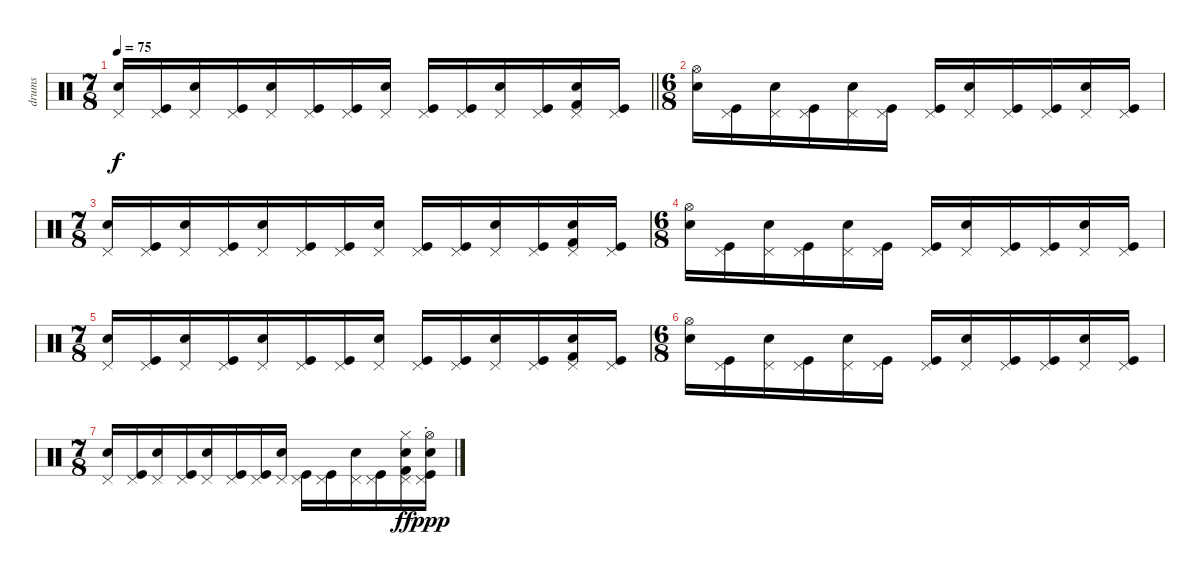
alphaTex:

\track ("drums" "drums") {instrument percussion}
\staff {score}
\articulation defaults
\ts (7 8)
\tempo 75
\clef neutral
\barLineRight lightlight
\ks c
("Pedal Hi-Hat (hit)" "Electric Snare (hit)").16{dy f} ("Pedal Hi-Hat (hit)" "Kick (hit)").16 ("Pedal Hi-Hat (hit)" "Electric Snare (hit)").16 ("Pedal Hi-Hat (hit)" "Kick (hit)").16 ("Pedal Hi-Hat (hit)" "Electric Snare (hit)").16 ("Pedal Hi-Hat (hit)" "Kick (hit)").16 ("Pedal Hi-Hat (hit)" "Kick (hit)").16 ("Pedal Hi-Hat (hit)" "Electric Snare (hit)").16 ("Pedal Hi-Hat (hit)" "Kick (hit)").16 ("Pedal Hi-Hat (hit)" "Kick (hit)").16 ("Pedal Hi-Hat (hit)" "Electric Snare (hit)").16 ("Pedal Hi-Hat (hit)" "Kick (hit)").16 ("Pedal Hi-Hat (hit)" "Electric Snare (hit)" "Kick (hit) 2").16 ("Pedal Hi-Hat (hit)" "Kick (hit)").16 |
\ts (6 8)
("Hi-Hat (open)" "Electric Snare (hit)").16 ("Pedal Hi-Hat (hit)" "Kick (hit)").16 ("Pedal Hi-Hat (hit)" "Electric Snare (hit)").16 ("Pedal Hi-Hat (hit)" "Kick (hit)").16 ("Pedal Hi-Hat (hit)" "Electric Snare (hit)").16 ("Pedal Hi-Hat (hit)" "Kick (hit)").16 ("Pedal Hi-Hat (hit)" "Kick (hit)").16 ("Pedal Hi-Hat (hit)" "Electric Snare (hit)").16 ("Pedal Hi-Hat (hit)" "Kick (hit)").16 ("Pedal Hi-Hat (hit)" "Kick (hit)").16 ("Pedal Hi-Hat (hit)" "Electric Snare (hit)").16 ("Pedal Hi-Hat (hit)" "Kick (hit)").16 |
\ts (7 8)
("Pedal Hi-Hat (hit)" "Electric Snare (hit)").16 ("Pedal Hi-Hat (hit)" "Kick (hit)").16 ("Pedal Hi-Hat (hit)" "Electric Snare (hit)").16 ("Pedal Hi-Hat (hit)" "Kick (hit)").16 ("Pedal Hi-Hat (hit)" "Electric Snare (hit)").16 ("Pedal Hi-Hat (hit)" "Kick (hit)").16 ("Pedal Hi-Hat (hit)" "Kick (hit)").16 ("Pedal Hi-Hat (hit)" "Electric Snare (hit)").16 ("Pedal Hi-Hat (hit)" "Kick (hit)").16 ("Pedal Hi-Hat (hit)" "Kick (hit)").16 ("Pedal Hi-Hat (hit)" "Electric Snare (hit)").16 ("Pedal Hi-Hat (hit)" "Kick (hit)").16 ("Pedal Hi-Hat (hit)" "Electric Snare (hit)" "Kick (hit) 2").16 ("Pedal Hi-Hat (hit)" "Kick (hit)").16 |
\ts (6 8)
("Hi-Hat (open)" "Electric Snare (hit)").16 ("Pedal Hi-Hat (hit)" "Kick (hit)").16 ("Pedal Hi-Hat (hit)" "Electric Snare (hit)").16 ("Pedal Hi-Hat (hit)" "Kick (hit)").16 ("Pedal Hi-Hat (hit)" "Electric Snare (hit)").16 ("Pedal Hi-Hat (hit)" "Kick (hit)").16 ("Pedal Hi-Hat (hit)" "Kick (hit)").16 ("Pedal Hi-Hat (hit)" "Electric Snare (hit)").16 ("Pedal Hi-Hat (hit)" "Kick (hit)").16 ("Pedal Hi-Hat (hit)" "Kick (hit)").16 ("Pedal Hi-Hat (hit)" "Electric Snare (hit)").16 ("Pedal Hi-Hat (hit)" "Kick (hit)").16 |
\ts (7 8)
("Pedal Hi-Hat (hit)" "Electric Snare (hit)").16 ("Pedal Hi-Hat (hit)" "Kick (hit)").16 ("Pedal Hi-Hat (hit)" "Electric Snare (hit)").16 ("Pedal Hi-Hat (hit)" "Kick (hit)").16 ("Pedal Hi-Hat (hit)" "Electric Snare (hit)").16 ("Pedal Hi-Hat (hit)" "Kick (hit)").16 ("Pedal Hi-Hat (hit)" "Kick (hit)").16 ("Pedal Hi-Hat (hit)" "Electric Snare (hit)").16 ("Pedal Hi-Hat (hit)" "Kick (hit)").16 ("Pedal Hi-Hat (hit)" "Kick (hit)").16 ("Pedal Hi-Hat (hit)" "Electric Snare (hit)").16 ("Pedal Hi-Hat (hit)" "Kick (hit)").16 ("Pedal Hi-Hat (hit)" "Electric Snare (hit)" "Kick (hit) 2").16 ("Pedal Hi-Hat (hit)" "Kick (hit)").16 |
\ts (6 8)
("Hi-Hat (open)" "Electric Snare (hit)").16 ("Pedal Hi-Hat (hit)" "Kick (hit)").16 ("Pedal Hi-Hat (hit)" "Electric Snare (hit)").16 ("Pedal Hi-Hat (hit)" "Kick (hit)").16 ("Pedal Hi-Hat (hit)" "Electric Snare (hit)").16 ("Pedal Hi-Hat (hit)" "Kick (hit)").16 ("Pedal Hi-Hat (hit)" "Kick (hit)").16 ("Pedal Hi-Hat (hit)" "Electric Snare (hit)").16 ("Pedal Hi-Hat (hit)" "Kick (hit)").16 ("Pedal Hi-Hat (hit)" "Kick (hit)").16 ("Pedal Hi-Hat (hit)" "Electric Snare (hit)").16 ("Pedal Hi-Hat (hit)" "Kick (hit)").16 |
\ts (7 8)
("Pedal Hi-Hat (hit)" "Electric Snare (hit)").16 ("Pedal Hi-Hat (hit)" "Kick (hit)").16 ("Pedal Hi-Hat (hit)" "Electric Snare (hit)").16 ("Pedal Hi-Hat (hit)" "Kick (hit)").16 ("Pedal Hi-Hat (hit)" "Electric Snare (hit)").16 ("Pedal Hi-Hat (hit)" "Kick (hit)").16 ("Pedal Hi-Hat (hit)" "Kick (hit)").16 ("Pedal Hi-Hat (hit)" "Electric Snare (hit)").16 ("Pedal Hi-Hat (hit)" "Kick (hit)").16 ("Pedal Hi-Hat (hit)" "Kick (hit)").16 ("Pedal Hi-Hat (hit)" "Electric Snare (hit)").16 ("Pedal Hi-Hat (hit)" "Kick (hit)").16 ("Pedal Hi-Hat (hit)" "Hi-Hat (closed)" "Electric Snare (hit)" "Kick (hit) 2").16{dy ff} ("Pedal Hi-Hat (hit)" "Hi-Hat (open)"{st} "Electric Snare (hit)" "Kick (hit)").16{dy ppp}
